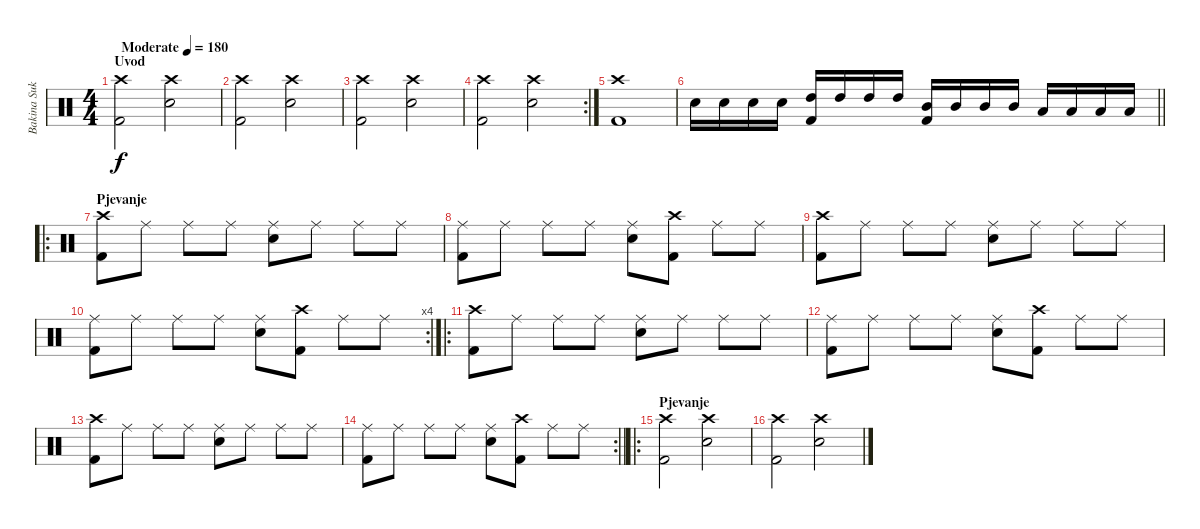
\track ("Bakina Sukrvica" "Bakina Suk") {instrument percussion}
\staff {score}
\articulation defaults
\ts (4 4)
\section ("" "Uvod")
\tempo (180 "Moderate")
\clef neutral
\ks c
("Crash high (hit)" "Kick (hit) 2").2{dy f} ("Crash high (hit)" "Electric Snare (hit)").2 |
("Crash high (hit)" "Kick (hit) 2").2 ("Crash high (hit)" "Electric Snare (hit)").2 |
("Crash high (hit)" "Kick (hit) 2").2 ("Crash high (hit)" "Electric Snare (hit)").2 |
\rc 2
("Crash high (hit)" "Kick (hit) 2").2 ("Crash high (hit)" "Electric Snare (hit)").2 |
("Crash high (hit)" "Kick (hit) 2").1 |
\barLineRight lightlight "Electric Snare (hit)".16 "Electric Snare (hit)".16 "Electric Snare (hit)".16 "Electric Snare (hit)".16
("Kick (hit) 2" "High Tom (hit)").16 "High Tom (hit)".16 "High Tom (hit)".16 "High Tom (hit)".16 ("Kick (hit) 2" "Mid Tom (hit)").16 "Mid Tom (hit)".16 "Mid Tom (hit)".16 "Mid Tom (hit)".16 "Low Tom (hit)".16 "Low Tom (hit)".16 "Low Tom (hit)".16 "Low Tom (hit)".16 |
\ro
\section ("" "Pjevanje")
("Crash high (hit)" "Kick (hit) 2").8 "Ride (middle)".8 "Ride (middle)".8 "Ride (middle)".8 ("Ride (middle)" "Electric Snare (hit)").8 "Ride (middle)".8 "Ride (middle)".8 "Ride (middle)".8 |
("Ride (middle)" "Kick (hit) 2").8 "Ride (middle)".8 "Ride (middle)".8 "Ride (middle)".8 ("Ride (middle)" "Electric Snare (hit)").8 ("Crash high (hit)" "Kick (hit) 2").8 "Ride (middle)".8 "Ride (middle)".8 |
("Crash high (hit)" "Kick (hit) 2").8 "Ride (middle)".8 "Ride (middle)".8 "Ride (middle)".8 ("Ride (middle)" "Electric Snare (hit)").8 "Ride (middle)".8 "Ride (middle)".8 "Ride (middle)".8 |
\rc 4
("Ride (middle)" "Kick (hit) 2").8 "Ride (middle)".8 "Ride (middle)".8 "Ride (middle)".8 ("Ride (middle)" "Electric Snare (hit)").8 ("Crash high (hit)" "Kick (hit) 2").8 "Ride (middle)".8 "Ride (middle)".8 |
\ro
("Crash high (hit)" "Kick (hit) 2").8 "Ride (middle)".8 "Ride (middle)".8 "Ride (middle)".8 ("Ride (middle)" "Electric Snare (hit)").8 "Ride (middle)".8 "Ride (middle)".8 "Ride (middle)".8 |
("Ride (middle)" "Kick (hit) 2").8 "Ride (middle)".8 "Ride (middle)".8 "Ride (middle)".8 ("Ride (middle)" "Electric Snare (hit)").8 ("Crash high (hit)" "Kick (hit) 2").8 "Ride (middle)".8 "Ride (middle)".8 |
("Crash high (hit)" "Kick (hit) 2").8 "Ride (middle)".8 "Ride (middle)".8 "Ride (middle)".8 ("Ride (middle)" "Electric Snare (hit)").8 "Ride (middle)".8 "Ride (middle)".8 "Ride (middle)".8 |
\rc 2
\barLineRight lightlight
("Ride (middle)" "Kick (hit) 2").8 "Ride (middle)".8 "Ride (middle)".8 "Ride (middle)".8 ("Ride (middle)" "Electric Snare (hit)").8 ("Crash high (hit)" "Kick (hit) 2").8 "Ride (middle)".8 "Ride (middle)".8 |
\ro
\section ("" "Pjevanje")
("Crash high (hit)" "Kick (hit) 2").2 ("Crash high (hit)" "Electric Snare (hit)").2 |
("Crash high (hit)" "Kick (hit) 2").2 ("Crash high (hit)" "Electric Snare (hit)").2
